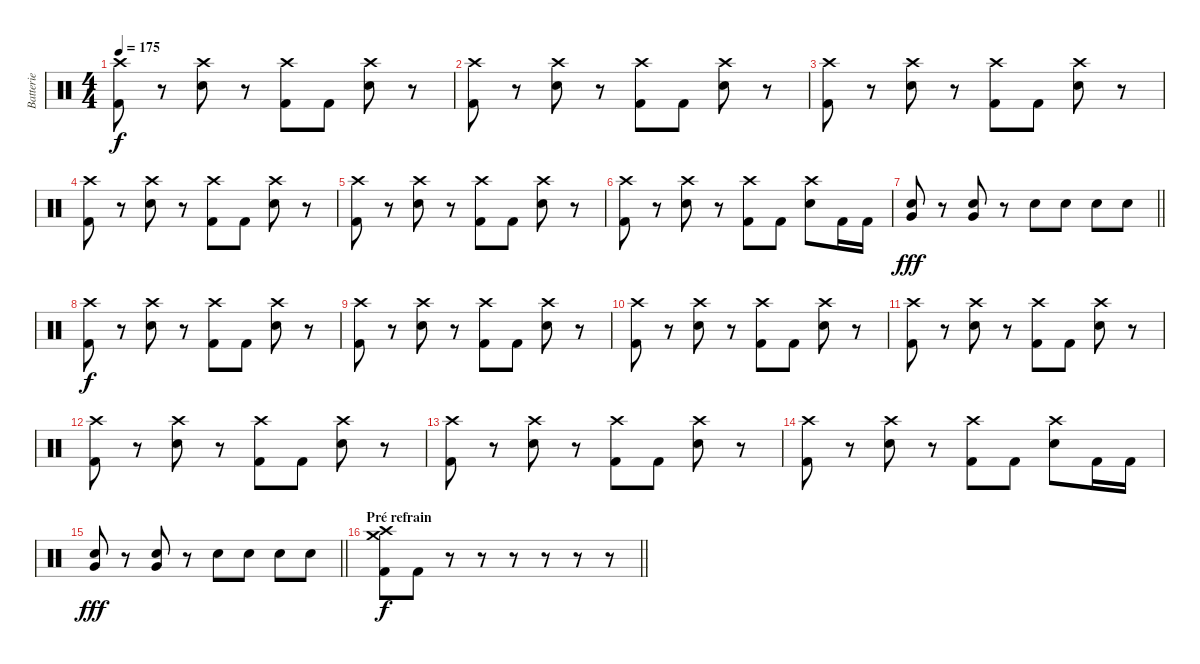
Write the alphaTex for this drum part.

\track ("Batterie" "Batterie") {instrument percussion}
\staff {score}
\articulation defaults
\ts (4 4)
\tempo 175
\clef neutral
\ks c
("Kick (hit) 2" "Crash high (hit)").8{dy f} r.8 ("Electric Snare (hit)" "Crash high (hit)").8 r.8 ("Kick (hit) 2" "Crash high (hit)").8 "Kick (hit) 2".8 ("Electric Snare (hit)" "Crash high (hit)").8 r.8 |
("Kick (hit) 2" "Crash high (hit)").8 r.8 ("Electric Snare (hit)" "Crash high (hit)").8 r.8 ("Kick (hit) 2" "Crash high (hit)").8 "Kick (hit) 2".8 ("Electric Snare (hit)" "Crash high (hit)").8 r.8 |
("Kick (hit) 2" "Crash high (hit)").8 r.8 ("Electric Snare (hit)" "Crash high (hit)").8 r.8 ("Kick (hit) 2" "Crash high (hit)").8 "Kick (hit) 2".8 ("Electric Snare (hit)" "Crash high (hit)").8 r.8 |
("Kick (hit) 2" "Crash high (hit)").8 r.8 ("Electric Snare (hit)" "Crash high (hit)").8 r.8 ("Kick (hit) 2" "Crash high (hit)").8 "Kick (hit) 2".8 ("Electric Snare (hit)" "Crash high (hit)").8 r.8 |
("Kick (hit) 2" "Crash high (hit)").8 r.8 ("Electric Snare (hit)" "Crash high (hit)").8 r.8 ("Kick (hit) 2" "Crash high (hit)").8 "Kick (hit) 2".8 ("Electric Snare (hit)" "Crash high (hit)").8 r.8 |
("Kick (hit) 2" "Crash high (hit)").8 r.8 ("Electric Snare (hit)" "Crash high (hit)").8 r.8 ("Kick (hit) 2" "Crash high (hit)").8 "Kick (hit) 2".8 ("Electric Snare (hit)" "Crash high (hit)").8 "Kick (hit) 2".16 "Kick (hit) 2".16 |
\barLineRight lightlight
("Electric Snare (hit)" "Very Low Tom (hit)").8{dy fff} r.8 ("Electric Snare (hit)" "Very Low Tom (hit)").8 r.8 "Electric Snare (hit)".8 "Electric Snare (hit)".8 "Electric Snare (hit)".8 "Electric Snare (hit)".8 |
("Kick (hit) 2" "Crash high (hit)").8{dy f} r.8 ("Electric Snare (hit)" "Crash high (hit)").8 r.8 ("Kick (hit) 2" "Crash high (hit)").8 "Kick (hit) 2".8 ("Electric Snare (hit)" "Crash high (hit)").8 r.8 |
("Kick (hit) 2" "Crash high (hit)").8 r.8 ("Electric Snare (hit)" "Crash high (hit)").8 r.8 ("Kick (hit) 2" "Crash high (hit)").8 "Kick (hit) 2".8 ("Electric Snare (hit)" "Crash high (hit)").8 r.8 |
("Kick (hit) 2" "Crash high (hit)").8 r.8 ("Electric Snare (hit)" "Crash high (hit)").8 r.8 ("Kick (hit) 2" "Crash high (hit)").8 "Kick (hit) 2".8 ("Electric Snare (hit)" "Crash high (hit)").8 r.8 |
("Kick (hit) 2" "Crash high (hit)").8 r.8 ("Electric Snare (hit)" "Crash high (hit)").8 r.8 ("Kick (hit) 2" "Crash high (hit)").8 "Kick (hit) 2".8 ("Electric Snare (hit)" "Crash high (hit)").8 r.8 |
("Kick (hit) 2" "Crash high (hit)").8 r.8 ("Electric Snare (hit)" "Crash high (hit)").8 r.8 ("Kick (hit) 2" "Crash high (hit)").8 "Kick (hit) 2".8 ("Electric Snare (hit)" "Crash high (hit)").8 r.8 |
("Kick (hit) 2" "Crash high (hit)").8 r.8 ("Electric Snare (hit)" "Crash high (hit)").8 r.8 ("Kick (hit) 2" "Crash high (hit)").8 "Kick (hit) 2".8 ("Electric Snare (hit)" "Crash high (hit)").8 r.8 |
("Kick (hit) 2" "Crash high (hit)").8 r.8 ("Electric Snare (hit)" "Crash high (hit)").8 r.8 ("Kick (hit) 2" "Crash high (hit)").8 "Kick (hit) 2".8 ("Electric Snare (hit)" "Crash high (hit)").8 "Kick (hit) 2".16 "Kick (hit) 2".16 |
\barLineRight lightlight
("Electric Snare (hit)" "Very Low Tom (hit)").8{dy fff} r.8 ("Electric Snare (hit)" "Very Low Tom (hit)").8 r.8 "Electric Snare (hit)".8 "Electric Snare (hit)".8 "Electric Snare (hit)".8 "Electric Snare (hit)".8 |
\section ("" "Pré refrain")
\barLineRight lightlight
("Kick (hit) 2" "Crash medium (hit)" "Crash high (hit)").8{dy f} "Kick (hit) 2".8 r.8 r.8 r.8 r.8 r.8 r.8
